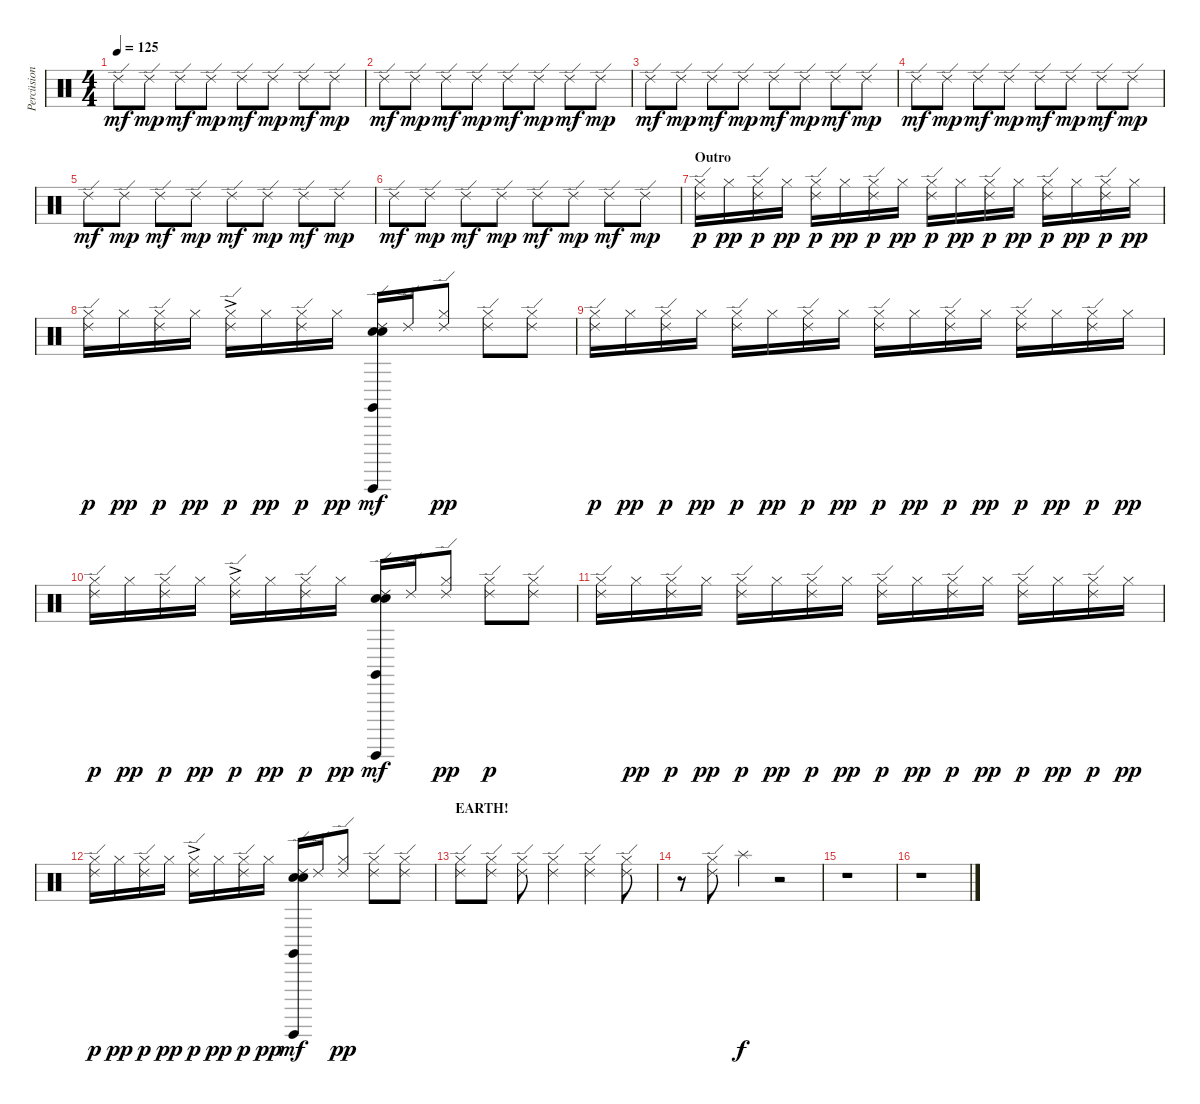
\track ("Percüsion" "Percüsion") {instrument percussion}
\staff {score}
\articulation defaults
\ts (4 4)
\tempo 125
\clef neutral
\ks c "Ride (edge) 2".8{dy mf} "Ride (edge) 2".8{dy mp} "Ride (edge) 2".8{dy mf} "Ride (edge) 2".8{dy mp} "Ride (edge) 2".8{dy mf} "Ride (edge) 2".8{dy mp} "Ride (edge) 2".8{dy mf} "Ride (edge) 2".8{dy mp}
|
"Ride (edge) 2".8{dy mf} "Ride (edge) 2".8{dy mp} "Ride (edge) 2".8{dy mf} "Ride (edge) 2".8{dy mp} "Ride (edge) 2".8{dy mf} "Ride (edge) 2".8{dy mp} "Ride (edge) 2".8{dy mf} "Ride (edge) 2".8{dy mp} |
"Ride (edge) 2".8{dy mf} "Ride (edge) 2".8{dy mp} "Ride (edge) 2".8{dy mf} "Ride (edge) 2".8{dy mp} "Ride (edge) 2".8{dy mf} "Ride (edge) 2".8{dy mp} "Ride (edge) 2".8{dy mf} "Ride (edge) 2".8{dy mp} |
"Ride (edge) 2".8{dy mf} "Ride (edge) 2".8{dy mp} "Ride (edge) 2".8{dy mf} "Ride (edge) 2".8{dy mp} "Ride (edge) 2".8{dy mf} "Ride (edge) 2".8{dy mp} "Ride (edge) 2".8{dy mf} "Ride (edge) 2".8{dy mp} |
"Ride (edge) 2".8{dy mf} "Ride (edge) 2".8{dy mp} "Ride (edge) 2".8{dy mf} "Ride (edge) 2".8{dy mp} "Ride (edge) 2".8{dy mf} "Ride (edge) 2".8{dy mp} "Ride (edge) 2".8{dy mf} "Ride (edge) 2".8{dy mp} |
"Ride (edge) 2".8{dy mf} "Ride (edge) 2".8{dy mp} "Ride (edge) 2".8{dy mf} "Ride (edge) 2".8{dy mp} "Ride (edge) 2".8{dy mf} "Ride (edge) 2".8{dy mp} "Ride (edge) 2".8{dy mf} "Ride (edge) 2".8{dy mp} |
\section ("" "Outro")
("Ride (edge) 2" "Hi-Hat (closed)").16{dy p} "Hi-Hat (closed)".16{dy pp} ("Ride (edge) 2" "Hi-Hat (closed)").16{dy p} "Hi-Hat (closed)".16{dy pp} ("Ride (edge) 2" "Hi-Hat (closed)").16{dy p} "Hi-Hat (closed)".16{dy pp} ("Ride (edge) 2" "Hi-Hat (closed)").16{dy p} "Hi-Hat (closed)".16{dy pp} ("Ride (edge) 2" "Hi-Hat (closed)").16{dy p} "Hi-Hat (closed)".16{dy pp} ("Ride (edge) 2" "Hi-Hat (closed)").16{dy p} "Hi-Hat (closed)".16{dy pp} ("Ride (edge) 2" "Hi-Hat (closed)").16{dy p} "Hi-Hat (closed)".16{dy pp} ("Ride (edge) 2" "Hi-Hat (closed)").16{dy p} "Hi-Hat (closed)".16{dy pp} |
("Ride (edge) 2" "Hi-Hat (closed)").16{dy p} "Hi-Hat (closed)".16{dy pp} ("Ride (edge) 2" "Hi-Hat (closed)").16{dy p} "Hi-Hat (closed)".16{dy pp} ("Ride (edge) 2"{ac} "Hi-Hat (closed)").16{dy p} "Hi-Hat (closed)".16{dy pp} ("Ride (edge) 2" "Hi-Hat (closed)").16{dy p} "Hi-Hat (closed)".16{dy pp} ("Hand Clap (hit)" "Hand Clap (hit)" "Ride (edge) 2" "Claves (hit)" "Guiro (hit)").16{dy mf} "Ride (edge) 2".16 ("Ride (edge) 2" "Hi-Hat (closed)").8{dy pp} ("Ride (edge) 2" "Hi-Hat (closed)").8 ("Ride (edge) 2" "Hi-Hat (closed)").8 |
("Ride (edge) 2" "Hi-Hat (closed)").16{dy p} "Hi-Hat (closed)".16{dy pp} ("Ride (edge) 2" "Hi-Hat (closed)").16{dy p} "Hi-Hat (closed)".16{dy pp} ("Ride (edge) 2" "Hi-Hat (closed)").16{dy p} "Hi-Hat (closed)".16{dy pp} ("Ride (edge) 2" "Hi-Hat (closed)").16{dy p} "Hi-Hat (closed)".16{dy pp} ("Ride (edge) 2" "Hi-Hat (closed)").16{dy p} "Hi-Hat (closed)".16{dy pp} ("Ride (edge) 2" "Hi-Hat (closed)").16{dy p} "Hi-Hat (closed)".16{dy pp} ("Ride (edge) 2" "Hi-Hat (closed)").16{dy p} "Hi-Hat (closed)".16{dy pp} ("Ride (edge) 2" "Hi-Hat (closed)").16{dy p} "Hi-Hat (closed)".16{dy pp} |
("Ride (edge) 2" "Hi-Hat (closed)").16{dy p} "Hi-Hat (closed)".16{dy pp} ("Ride (edge) 2" "Hi-Hat (closed)").16{dy p} "Hi-Hat (closed)".16{dy pp} ("Ride (edge) 2"{ac} "Hi-Hat (closed)").16{dy p} "Hi-Hat (closed)".16{dy pp} ("Ride (edge) 2" "Hi-Hat (closed)").16{dy p} "Hi-Hat (closed)".16{dy pp} ("Hand Clap (hit)" "Hand Clap (hit)" "Ride (edge) 2" "Claves (hit)" "Guiro (hit)").16{dy mf} "Ride (edge) 2".16 ("Ride (edge) 2" "Hi-Hat (closed)").8{dy pp} ("Ride (edge) 2" "Hi-Hat (closed)").8{dy p} ("Ride (edge) 2" "Hi-Hat (closed)").8 |
("Ride (edge) 2" "Hi-Hat (closed)").16 "Hi-Hat (closed)".16{dy pp} ("Ride (edge) 2" "Hi-Hat (closed)").16{dy p} "Hi-Hat (closed)".16{dy pp} ("Ride (edge) 2" "Hi-Hat (closed)").16{dy p} "Hi-Hat (closed)".16{dy pp} ("Ride (edge) 2" "Hi-Hat (closed)").16{dy p} "Hi-Hat (closed)".16{dy pp} ("Ride (edge) 2" "Hi-Hat (closed)").16{dy p} "Hi-Hat (closed)".16{dy pp} ("Ride (edge) 2" "Hi-Hat (closed)").16{dy p} "Hi-Hat (closed)".16{dy pp} ("Ride (edge) 2" "Hi-Hat (closed)").16{dy p} "Hi-Hat (closed)".16{dy pp} ("Ride (edge) 2" "Hi-Hat (closed)").16{dy p} "Hi-Hat (closed)".16{dy pp} |
("Ride (edge) 2" "Hi-Hat (closed)").16{dy p} "Hi-Hat (closed)".16{dy pp} ("Ride (edge) 2" "Hi-Hat (closed)").16{dy p} "Hi-Hat (closed)".16{dy pp} ("Ride (edge) 2"{ac} "Hi-Hat (closed)").16{dy p} "Hi-Hat (closed)".16{dy pp} ("Ride (edge) 2" "Hi-Hat (closed)").16{dy p} "Hi-Hat (closed)".16{dy pp} ("Hand Clap (hit)" "Hand Clap (hit)" "Ride (edge) 2" "Claves (hit)" "Guiro (hit)").16{dy mf} "Ride (edge) 2".16 ("Ride (edge) 2" "Hi-Hat (closed)").8{dy pp} ("Ride (edge) 2" "Hi-Hat (closed)").8 ("Ride (edge) 2" "Hi-Hat (closed)").8 |
\section ("" "EARTH!")
("Ride (edge) 2" "Hi-Hat (closed)").8 ("Ride (edge) 2" "Hi-Hat (closed)").8 ("Ride (edge) 2" "Hi-Hat (closed)").8 ("Ride (edge) 2" "Hi-Hat (closed)").4 ("Ride (edge) 2" "Hi-Hat (closed)").4 ("Ride (edge) 2" "Hi-Hat (closed)").8 |
r.8 ("Ride (edge) 2" "Hi-Hat (closed)").8 "Splash (hit)".4{dy f} r.2 |
r.1 |
r.1
